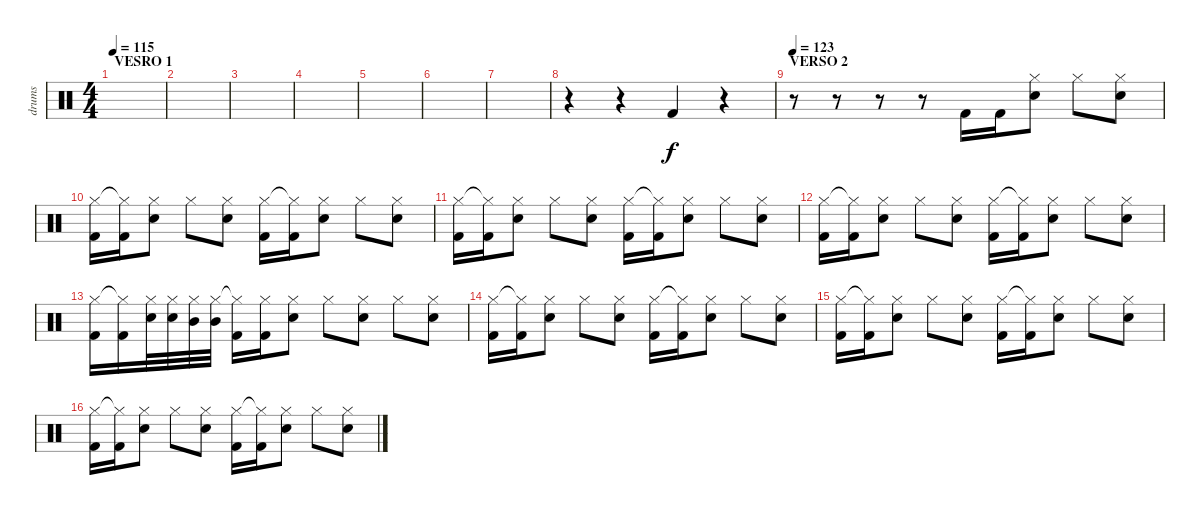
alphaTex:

\track ("drums" "drums") {instrument percussion}
\staff {score}
\articulation defaults
\ts (4 4)
\section ("" "VESRO 1")
\tempo 115
\clef neutral
\ks c
|
|
|
|
|
|
|
r.4 r.4 "Kick (hit) 2".4 r.4 |
\section ("" "VERSO 2")
\tempo 123
r.8 r.8 r.8 r.8 "Kick (hit) 2".16 "Kick (hit) 2".16 ("Electric Snare (hit)" "Hi-Hat (closed)").8 "Hi-Hat (closed)".8 ("Electric Snare (hit)" "Hi-Hat (closed)").8 |
("Kick (hit) 2" "Hi-Hat (closed)").16 ("Kick (hit) 2" "Hi-Hat (closed)"{t}).16 ("Electric Snare (hit)" "Hi-Hat (closed)").8 "Hi-Hat (closed)".8 ("Electric Snare (hit)" "Hi-Hat (closed)").8 ("Kick (hit) 2" "Hi-Hat (closed)").16 ("Kick (hit) 2" "Hi-Hat (closed)"{t}).16 ("Electric Snare (hit)" "Hi-Hat (closed)").8 "Hi-Hat (closed)".8 ("Electric Snare (hit)" "Hi-Hat (closed)").8 |
("Kick (hit) 2" "Hi-Hat (closed)").16 ("Kick (hit) 2" "Hi-Hat (closed)"{t}).16 ("Electric Snare (hit)" "Hi-Hat (closed)").8 "Hi-Hat (closed)".8 ("Electric Snare (hit)" "Hi-Hat (closed)").8 ("Kick (hit) 2" "Hi-Hat (closed)").16 ("Kick (hit) 2" "Hi-Hat (closed)"{t}).16 ("Electric Snare (hit)" "Hi-Hat (closed)").8 "Hi-Hat (closed)".8 ("Electric Snare (hit)" "Hi-Hat (closed)").8 |
("Kick (hit) 2" "Hi-Hat (closed)").16 ("Kick (hit) 2" "Hi-Hat (closed)"{t}).16 ("Electric Snare (hit)" "Hi-Hat (closed)").8 "Hi-Hat (closed)".8 ("Electric Snare (hit)" "Hi-Hat (closed)").8 ("Kick (hit) 2" "Hi-Hat (closed)").16 ("Kick (hit) 2" "Hi-Hat (closed)"{t}).16 ("Electric Snare (hit)" "Hi-Hat (closed)").8 "Hi-Hat (closed)".8 ("Electric Snare (hit)" "Hi-Hat (closed)").8 |
("Kick (hit) 2" "Hi-Hat (closed)").16 ("Kick (hit) 2" "Hi-Hat (closed)"{t}).16 ("Electric Snare (hit)" "Hi-Hat (closed)").32 ("Electric Snare (hit)" "Hi-Hat (closed)").32 ("Mid Tom (hit)" "Hi-Hat (closed)").32 ("Mid Tom (hit)" "Hi-Hat (closed)").32 ("Kick (hit) 2" "Hi-Hat (closed)"{t}).16 ("Kick (hit) 2" "Hi-Hat (closed)").16 ("Electric Snare (hit)" "Hi-Hat (closed)").8 "Hi-Hat (closed)".8 ("Electric Snare (hit)" "Hi-Hat (closed)").8 "Hi-Hat (closed)".8 ("Electric Snare (hit)" "Hi-Hat (closed)").8 |
("Kick (hit) 2" "Hi-Hat (closed)").16 ("Kick (hit) 2" "Hi-Hat (closed)"{t}).16 ("Electric Snare (hit)" "Hi-Hat (closed)").8 "Hi-Hat (closed)".8 ("Electric Snare (hit)" "Hi-Hat (closed)").8 ("Kick (hit) 2" "Hi-Hat (closed)").16 ("Kick (hit) 2" "Hi-Hat (closed)"{t}).16 ("Electric Snare (hit)" "Hi-Hat (closed)").8 "Hi-Hat (closed)".8 ("Electric Snare (hit)" "Hi-Hat (closed)").8 |
("Kick (hit) 2" "Hi-Hat (closed)").16 ("Kick (hit) 2" "Hi-Hat (closed)"{t}).16 ("Electric Snare (hit)" "Hi-Hat (closed)").8 "Hi-Hat (closed)".8 ("Electric Snare (hit)" "Hi-Hat (closed)").8 ("Kick (hit) 2" "Hi-Hat (closed)").16 ("Kick (hit) 2" "Hi-Hat (closed)"{t}).16 ("Electric Snare (hit)" "Hi-Hat (closed)").8 "Hi-Hat (closed)".8 ("Electric Snare (hit)" "Hi-Hat (closed)").8 |
("Kick (hit) 2" "Hi-Hat (closed)").16 ("Kick (hit) 2" "Hi-Hat (closed)"{t}).16 ("Electric Snare (hit)" "Hi-Hat (closed)").8 "Hi-Hat (closed)".8 ("Electric Snare (hit)" "Hi-Hat (closed)").8 ("Kick (hit) 2" "Hi-Hat (closed)").16 ("Kick (hit) 2" "Hi-Hat (closed)"{t}).16 ("Electric Snare (hit)" "Hi-Hat (closed)").8 "Hi-Hat (closed)".8 ("Electric Snare (hit)" "Hi-Hat (closed)").8
